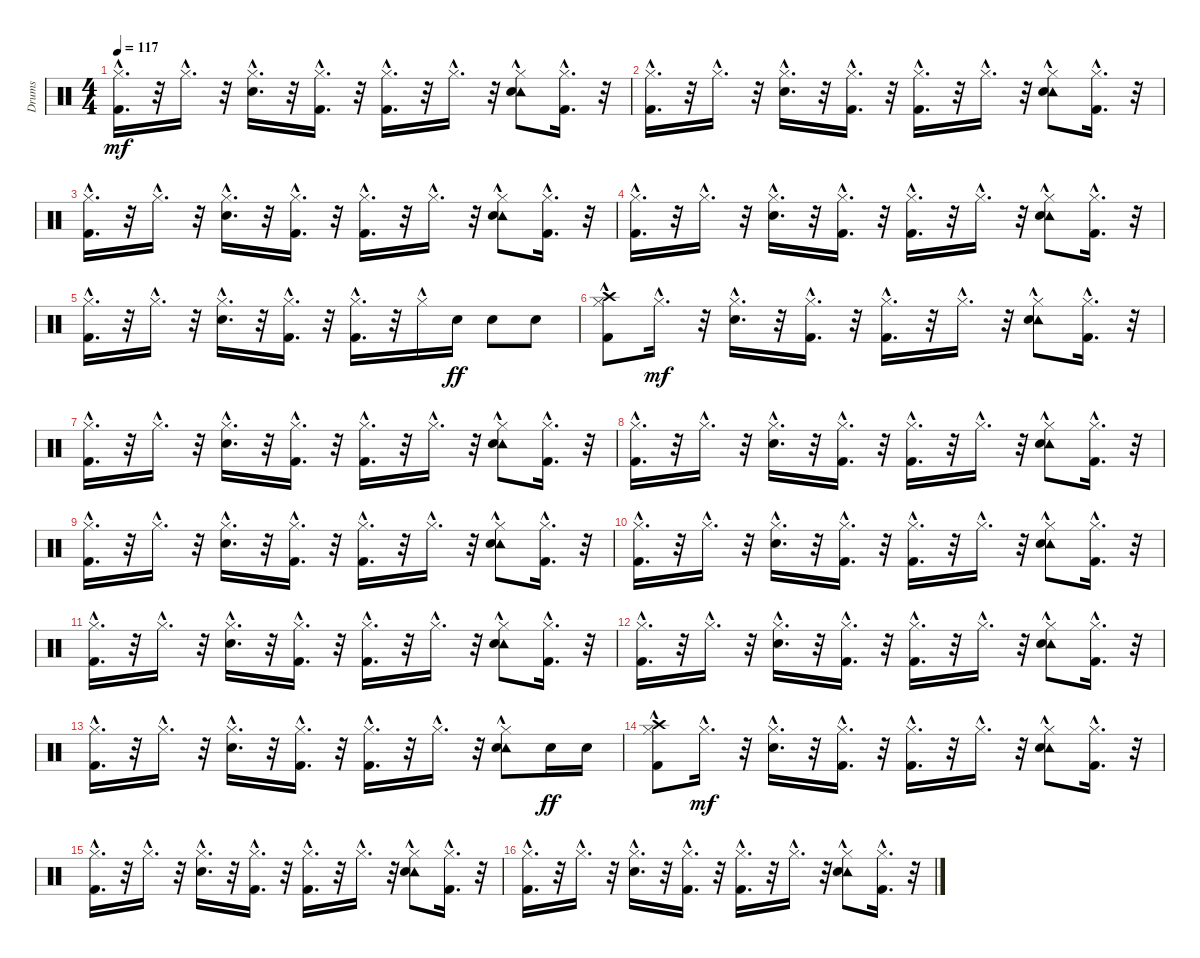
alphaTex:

\track ("Drums" "Drums") {instrument percussion}
\staff {score}
\articulation defaults
\ts (4 4)
\tempo 117
\clef neutral
\ks c
("Kick (hit) 2"{hac} "Hi-Hat (closed)"{hac}).16{d dy mf} r.32 "Hi-Hat (closed)"{hac}.16{d} r.32 ("Snare (hit) 2"{hac} "Hi-Hat (closed)"{hac}).16{d} r.32 ("Kick (hit) 2"{hac} "Hi-Hat (closed)"{hac}).16{d} r.32 ("Kick (hit) 2"{hac} "Hi-Hat (closed)"{hac}).16{d} r.32 "Hi-Hat (closed)"{hac}.16{d} r.32 ("Tambourine (hit)" "Snare (hit) 2"{hac} "Hi-Hat (closed)"{hac}).8 ("Kick (hit) 2"{hac} "Hi-Hat (closed)"{hac}).16{d} r.32 |
("Kick (hit) 2"{hac} "Hi-Hat (closed)"{hac}).16{d} r.32 "Hi-Hat (closed)"{hac}.16{d} r.32 ("Snare (hit) 2"{hac} "Hi-Hat (closed)"{hac}).16{d} r.32 ("Kick (hit) 2"{hac} "Hi-Hat (closed)"{hac}).16{d} r.32 ("Kick (hit) 2"{hac} "Hi-Hat (closed)"{hac}).16{d} r.32 "Hi-Hat (closed)"{hac}.16{d} r.32 ("Tambourine (hit)" "Snare (hit) 2"{hac} "Hi-Hat (closed)"{hac}).8 ("Kick (hit) 2"{hac} "Hi-Hat (closed)"{hac}).16{d} r.32 |
("Kick (hit) 2"{hac} "Hi-Hat (closed)"{hac}).16{d} r.32 "Hi-Hat (closed)"{hac}.16{d} r.32 ("Snare (hit) 2"{hac} "Hi-Hat (closed)"{hac}).16{d} r.32 ("Kick (hit) 2"{hac} "Hi-Hat (closed)"{hac}).16{d} r.32 ("Kick (hit) 2"{hac} "Hi-Hat (closed)"{hac}).16{d} r.32 "Hi-Hat (closed)"{hac}.16{d} r.32 ("Tambourine (hit)" "Snare (hit) 2"{hac} "Hi-Hat (closed)"{hac}).8 ("Kick (hit) 2"{hac} "Hi-Hat (closed)"{hac}).16{d} r.32 |
("Kick (hit) 2"{hac} "Hi-Hat (closed)"{hac}).16{d} r.32 "Hi-Hat (closed)"{hac}.16{d} r.32 ("Snare (hit) 2"{hac} "Hi-Hat (closed)"{hac}).16{d} r.32 ("Kick (hit) 2"{hac} "Hi-Hat (closed)"{hac}).16{d} r.32 ("Kick (hit) 2"{hac} "Hi-Hat (closed)"{hac}).16{d} r.32 "Hi-Hat (closed)"{hac}.16{d} r.32 ("Tambourine (hit)" "Snare (hit) 2"{hac} "Hi-Hat (closed)"{hac}).8 ("Kick (hit) 2"{hac} "Hi-Hat (closed)"{hac}).16{d} r.32 |
("Kick (hit) 2"{hac} "Hi-Hat (closed)"{hac}).16{d} r.32 "Hi-Hat (closed)"{hac}.16{d} r.32 ("Snare (hit) 2"{hac} "Hi-Hat (closed)"{hac}).16{d} r.32 ("Kick (hit) 2"{hac} "Hi-Hat (closed)"{hac}).16{d} r.32 ("Kick (hit) 2"{hac} "Hi-Hat (closed)"{hac}).16{d} r.32 "Hi-Hat (closed)"{hac}.16 "Snare (hit) 2".16{dy ff} "Snare (hit) 2".8 "Snare (hit) 2".8 |
("Kick (hit) 2"{hac} "Hi-Hat (closed)"{hac} "Crash high (hit)"{hac}).8 "Hi-Hat (closed)"{hac}.16{d dy mf} r.32 ("Snare (hit) 2"{hac} "Hi-Hat (closed)"{hac}).16{d} r.32 ("Kick (hit) 2"{hac} "Hi-Hat (closed)"{hac}).16{d} r.32 ("Kick (hit) 2"{hac} "Hi-Hat (closed)"{hac}).16{d} r.32 "Hi-Hat (closed)"{hac}.16{d} r.32 ("Tambourine (hit)" "Snare (hit) 2"{hac} "Hi-Hat (closed)"{hac}).8 ("Kick (hit) 2"{hac} "Hi-Hat (closed)"{hac}).16{d} r.32 |
("Kick (hit) 2"{hac} "Hi-Hat (closed)"{hac}).16{d} r.32 "Hi-Hat (closed)"{hac}.16{d} r.32 ("Snare (hit) 2"{hac} "Hi-Hat (closed)"{hac}).16{d} r.32 ("Kick (hit) 2"{hac} "Hi-Hat (closed)"{hac}).16{d} r.32 ("Kick (hit) 2"{hac} "Hi-Hat (closed)"{hac}).16{d} r.32 "Hi-Hat (closed)"{hac}.16{d} r.32 ("Tambourine (hit)" "Snare (hit) 2"{hac} "Hi-Hat (closed)"{hac}).8 ("Kick (hit) 2"{hac} "Hi-Hat (closed)"{hac}).16{d} r.32 |
("Kick (hit) 2"{hac} "Hi-Hat (closed)"{hac}).16{d} r.32 "Hi-Hat (closed)"{hac}.16{d} r.32 ("Snare (hit) 2"{hac} "Hi-Hat (closed)"{hac}).16{d} r.32 ("Kick (hit) 2"{hac} "Hi-Hat (closed)"{hac}).16{d} r.32 ("Kick (hit) 2"{hac} "Hi-Hat (closed)"{hac}).16{d} r.32 "Hi-Hat (closed)"{hac}.16{d} r.32 ("Tambourine (hit)" "Snare (hit) 2"{hac} "Hi-Hat (closed)"{hac}).8 ("Kick (hit) 2"{hac} "Hi-Hat (closed)"{hac}).16{d} r.32 |
("Kick (hit) 2"{hac} "Hi-Hat (closed)"{hac}).16{d} r.32 "Hi-Hat (closed)"{hac}.16{d} r.32 ("Snare (hit) 2"{hac} "Hi-Hat (closed)"{hac}).16{d} r.32 ("Kick (hit) 2"{hac} "Hi-Hat (closed)"{hac}).16{d} r.32 ("Kick (hit) 2"{hac} "Hi-Hat (closed)"{hac}).16{d} r.32 "Hi-Hat (closed)"{hac}.16{d} r.32 ("Tambourine (hit)" "Snare (hit) 2"{hac} "Hi-Hat (closed)"{hac}).8 ("Kick (hit) 2"{hac} "Hi-Hat (closed)"{hac}).16{d} r.32 |
("Kick (hit) 2"{hac} "Hi-Hat (closed)"{hac}).16{d} r.32 "Hi-Hat (closed)"{hac}.16{d} r.32 ("Snare (hit) 2"{hac} "Hi-Hat (closed)"{hac}).16{d} r.32 ("Kick (hit) 2"{hac} "Hi-Hat (closed)"{hac}).16{d} r.32 ("Kick (hit) 2"{hac} "Hi-Hat (closed)"{hac}).16{d} r.32 "Hi-Hat (closed)"{hac}.16{d} r.32 ("Tambourine (hit)" "Snare (hit) 2"{hac} "Hi-Hat (closed)"{hac}).8 ("Kick (hit) 2"{hac} "Hi-Hat (closed)"{hac}).16{d} r.32 |
("Kick (hit) 2"{hac} "Hi-Hat (closed)"{hac}).16{d} r.32 "Hi-Hat (closed)"{hac}.16{d} r.32 ("Snare (hit) 2"{hac} "Hi-Hat (closed)"{hac}).16{d} r.32 ("Kick (hit) 2"{hac} "Hi-Hat (closed)"{hac}).16{d} r.32 ("Kick (hit) 2"{hac} "Hi-Hat (closed)"{hac}).16{d} r.32 "Hi-Hat (closed)"{hac}.16{d} r.32 ("Tambourine (hit)" "Snare (hit) 2"{hac} "Hi-Hat (closed)"{hac}).8 ("Kick (hit) 2"{hac} "Hi-Hat (closed)"{hac}).16{d} r.32 |
("Kick (hit) 2"{hac} "Hi-Hat (closed)"{hac}).16{d} r.32 "Hi-Hat (closed)"{hac}.16{d} r.32 ("Snare (hit) 2"{hac} "Hi-Hat (closed)"{hac}).16{d} r.32 ("Kick (hit) 2"{hac} "Hi-Hat (closed)"{hac}).16{d} r.32 ("Kick (hit) 2"{hac} "Hi-Hat (closed)"{hac}).16{d} r.32 "Hi-Hat (closed)"{hac}.16{d} r.32 ("Tambourine (hit)" "Snare (hit) 2"{hac} "Hi-Hat (closed)"{hac}).8 ("Kick (hit) 2"{hac} "Hi-Hat (closed)"{hac}).16{d} r.32 |
("Kick (hit) 2"{hac} "Hi-Hat (closed)"{hac}).16{d} r.32 "Hi-Hat (closed)"{hac}.16{d} r.32 ("Snare (hit) 2"{hac} "Hi-Hat (closed)"{hac}).16{d} r.32 ("Kick (hit) 2"{hac} "Hi-Hat (closed)"{hac}).16{d} r.32 ("Kick (hit) 2"{hac} "Hi-Hat (closed)"{hac}).16{d} r.32 "Hi-Hat (closed)"{hac}.16{d} r.32 ("Tambourine (hit)" "Snare (hit) 2"{hac} "Hi-Hat (closed)"{hac}).8 "Snare (hit) 2".16{dy ff} "Snare (hit) 2".16 |
("Kick (hit) 2"{hac} "Hi-Hat (closed)"{hac} "Crash high (hit)"{hac}).8 "Hi-Hat (closed)"{hac}.16{d dy mf} r.32 ("Snare (hit) 2"{hac} "Hi-Hat (closed)"{hac}).16{d} r.32 ("Kick (hit) 2"{hac} "Hi-Hat (closed)"{hac}).16{d} r.32 ("Kick (hit) 2"{hac} "Hi-Hat (closed)"{hac}).16{d} r.32 "Hi-Hat (closed)"{hac}.16{d} r.32 ("Tambourine (hit)" "Snare (hit) 2"{hac} "Hi-Hat (closed)"{hac}).8 ("Kick (hit) 2"{hac} "Hi-Hat (closed)"{hac}).16{d} r.32 |
("Kick (hit) 2"{hac} "Hi-Hat (closed)"{hac}).16{d} r.32 "Hi-Hat (closed)"{hac}.16{d} r.32 ("Snare (hit) 2"{hac} "Hi-Hat (closed)"{hac}).16{d} r.32 ("Kick (hit) 2"{hac} "Hi-Hat (closed)"{hac}).16{d} r.32 ("Kick (hit) 2"{hac} "Hi-Hat (closed)"{hac}).16{d} r.32 "Hi-Hat (closed)"{hac}.16{d} r.32 ("Tambourine (hit)" "Snare (hit) 2"{hac} "Hi-Hat (closed)"{hac}).8 ("Kick (hit) 2"{hac} "Hi-Hat (closed)"{hac}).16{d} r.32 |
("Kick (hit) 2"{hac} "Hi-Hat (closed)"{hac}).16{d} r.32 "Hi-Hat (closed)"{hac}.16{d} r.32 ("Snare (hit) 2"{hac} "Hi-Hat (closed)"{hac}).16{d} r.32 ("Kick (hit) 2"{hac} "Hi-Hat (closed)"{hac}).16{d} r.32 ("Kick (hit) 2"{hac} "Hi-Hat (closed)"{hac}).16{d} r.32 "Hi-Hat (closed)"{hac}.16{d} r.32 ("Tambourine (hit)" "Snare (hit) 2"{hac} "Hi-Hat (closed)"{hac}).8 ("Kick (hit) 2"{hac} "Hi-Hat (closed)"{hac}).16{d} r.32
